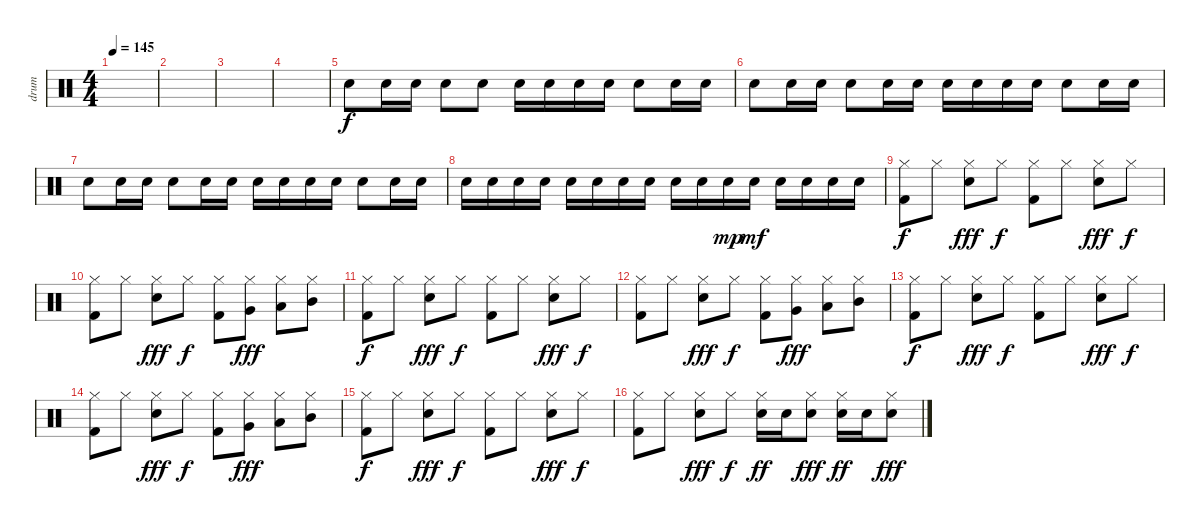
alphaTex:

\track ("drum" "drum") {instrument percussion}
\staff {score}
\articulation defaults
\ts (4 4)
\tempo 145
\clef neutral
\ks c
|
|
|
|
"Electric Snare (hit)".8 "Electric Snare (hit)".16 "Electric Snare (hit)".16 "Electric Snare (hit)".8 "Electric Snare (hit)".8 "Electric Snare (hit)".16 "Electric Snare (hit)".16 "Electric Snare (hit)".16 "Electric Snare (hit)".16 "Electric Snare (hit)".8 "Electric Snare (hit)".16 "Electric Snare (hit)".16 |
"Electric Snare (hit)".8 "Electric Snare (hit)".16 "Electric Snare (hit)".16 "Electric Snare (hit)".8 "Electric Snare (hit)".16 "Electric Snare (hit)".16 "Electric Snare (hit)".16 "Electric Snare (hit)".16 "Electric Snare (hit)".16 "Electric Snare (hit)".16 "Electric Snare (hit)".8 "Electric Snare (hit)".16 "Electric Snare (hit)".16 |
"Electric Snare (hit)".8 "Electric Snare (hit)".16 "Electric Snare (hit)".16 "Electric Snare (hit)".8 "Electric Snare (hit)".16 "Electric Snare (hit)".16 "Electric Snare (hit)".16 "Electric Snare (hit)".16 "Electric Snare (hit)".16 "Electric Snare (hit)".16 "Electric Snare (hit)".8 "Electric Snare (hit)".16 "Electric Snare (hit)".16 |
"Electric Snare (hit)".16 "Electric Snare (hit)".16 "Electric Snare (hit)".16 "Electric Snare (hit)".16 "Electric Snare (hit)".16 "Electric Snare (hit)".16 "Electric Snare (hit)".16 "Electric Snare (hit)".16 "Electric Snare (hit)".16 "Electric Snare (hit)".16 "Electric Snare (hit)".16{dy mp} "Electric Snare (hit)".16{dy mf} "Electric Snare (hit)".16 "Electric Snare (hit)".16 "Electric Snare (hit)".16 "Electric Snare (hit)".16 |
("Hi-Hat (closed)" "Kick (hit) 2").8{dy f} "Hi-Hat (closed)".8 ("Hi-Hat (closed)" "Electric Snare (hit)").8{dy fff} "Hi-Hat (closed)".8{dy f} ("Hi-Hat (closed)" "Kick (hit) 2").8 "Hi-Hat (closed)".8 ("Hi-Hat (closed)" "Electric Snare (hit)").8{dy fff} "Hi-Hat (closed)".8{dy f} |
("Hi-Hat (closed)" "Kick (hit) 2").8 "Hi-Hat (closed)".8 ("Hi-Hat (closed)" "Electric Snare (hit)").8{dy fff} "Hi-Hat (closed)".8{dy f} ("Hi-Hat (closed)" "Kick (hit) 2").8 ("Hi-Hat (closed)" "Very Low Tom (hit)").8{dy fff} ("Hi-Hat (closed)" "Low Tom (hit)").8 ("Hi-Hat (closed)" "Mid Tom (hit)").8 |
("Hi-Hat (closed)" "Kick (hit) 2").8{dy f} "Hi-Hat (closed)".8 ("Hi-Hat (closed)" "Electric Snare (hit)").8{dy fff} "Hi-Hat (closed)".8{dy f} ("Hi-Hat (closed)" "Kick (hit) 2").8 "Hi-Hat (closed)".8 ("Hi-Hat (closed)" "Electric Snare (hit)").8{dy fff} "Hi-Hat (closed)".8{dy f} |
("Hi-Hat (closed)" "Kick (hit) 2").8 "Hi-Hat (closed)".8 ("Hi-Hat (closed)" "Electric Snare (hit)").8{dy fff} "Hi-Hat (closed)".8{dy f} ("Hi-Hat (closed)" "Kick (hit) 2").8 ("Hi-Hat (closed)" "Very Low Tom (hit)").8{dy fff} ("Hi-Hat (closed)" "Low Tom (hit)").8 ("Hi-Hat (closed)" "Mid Tom (hit)").8 |
("Hi-Hat (closed)" "Kick (hit) 2").8{dy f} "Hi-Hat (closed)".8 ("Hi-Hat (closed)" "Electric Snare (hit)").8{dy fff} "Hi-Hat (closed)".8{dy f} ("Hi-Hat (closed)" "Kick (hit) 2").8 "Hi-Hat (closed)".8 ("Hi-Hat (closed)" "Electric Snare (hit)").8{dy fff} "Hi-Hat (closed)".8{dy f} |
("Hi-Hat (closed)" "Kick (hit) 2").8 "Hi-Hat (closed)".8 ("Hi-Hat (closed)" "Electric Snare (hit)").8{dy fff} "Hi-Hat (closed)".8{dy f} ("Hi-Hat (closed)" "Kick (hit) 2").8 ("Hi-Hat (closed)" "Very Low Tom (hit)").8{dy fff} ("Hi-Hat (closed)" "Low Tom (hit)").8 ("Hi-Hat (closed)" "Mid Tom (hit)").8 |
("Hi-Hat (closed)" "Kick (hit) 2").8{dy f} "Hi-Hat (closed)".8 ("Hi-Hat (closed)" "Electric Snare (hit)").8{dy fff} "Hi-Hat (closed)".8{dy f} ("Hi-Hat (closed)" "Kick (hit) 2").8 "Hi-Hat (closed)".8 ("Hi-Hat (closed)" "Electric Snare (hit)").8{dy fff} "Hi-Hat (closed)".8{dy f} |
("Hi-Hat (closed)" "Kick (hit) 2").8 "Hi-Hat (closed)".8 ("Hi-Hat (closed)" "Electric Snare (hit)").8{dy fff} "Hi-Hat (closed)".8{dy f} ("Hi-Hat (closed)" "Electric Snare (hit)").16{dy ff} "Electric Snare (hit)".16 ("Hi-Hat (closed)" "Electric Snare (hit)").8{dy fff} ("Hi-Hat (closed)" "Electric Snare (hit)").16{dy ff} "Electric Snare (hit)".16 ("Hi-Hat (closed)" "Electric Snare (hit)").8{dy fff}
